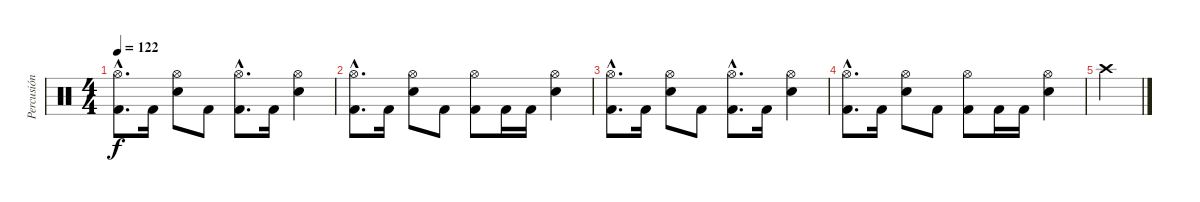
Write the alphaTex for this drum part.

\track ("Percusión" "Percusión") {instrument percussion}
\staff {score}
\articulation defaults
\ts (4 4)
\tempo 122
\clef neutral
\ks c
("Hi-Hat (open)"{hac} "Kick (hit) 2"{hac}).8{d dy f} "Kick (hit) 2".16 ("Hi-Hat (open)" "Snare (hit) 2").8 "Kick (hit) 2".8 ("Hi-Hat (open)"{hac} "Kick (hit) 2"{hac}).8{d} "Kick (hit) 2".16 ("Hi-Hat (open)" "Snare (hit) 2").4 |
("Hi-Hat (open)"{hac} "Kick (hit) 2"{hac}).8{d} "Kick (hit) 2".16 ("Hi-Hat (open)" "Snare (hit) 2").8 "Kick (hit) 2".8 ("Hi-Hat (open)" "Kick (hit) 2").8 "Kick (hit) 2".16 "Kick (hit) 2".16 ("Hi-Hat (open)" "Snare (hit) 2").4 |
("Hi-Hat (open)"{hac} "Kick (hit) 2"{hac}).8{d} "Kick (hit) 2".16 ("Hi-Hat (open)" "Snare (hit) 2").8 "Kick (hit) 2".8 ("Hi-Hat (open)"{hac} "Kick (hit) 2"{hac}).8{d} "Kick (hit) 2".16 ("Hi-Hat (open)" "Snare (hit) 2").4 |
("Hi-Hat (open)"{hac} "Kick (hit) 2"{hac}).8{d} "Kick (hit) 2".16 ("Hi-Hat (open)" "Snare (hit) 2").8 "Kick (hit) 2".8 ("Hi-Hat (open)" "Kick (hit) 2").8 "Kick (hit) 2".16 "Kick (hit) 2".16 ("Hi-Hat (open)" "Snare (hit) 2").4 |
"Crash high (hit)".4
